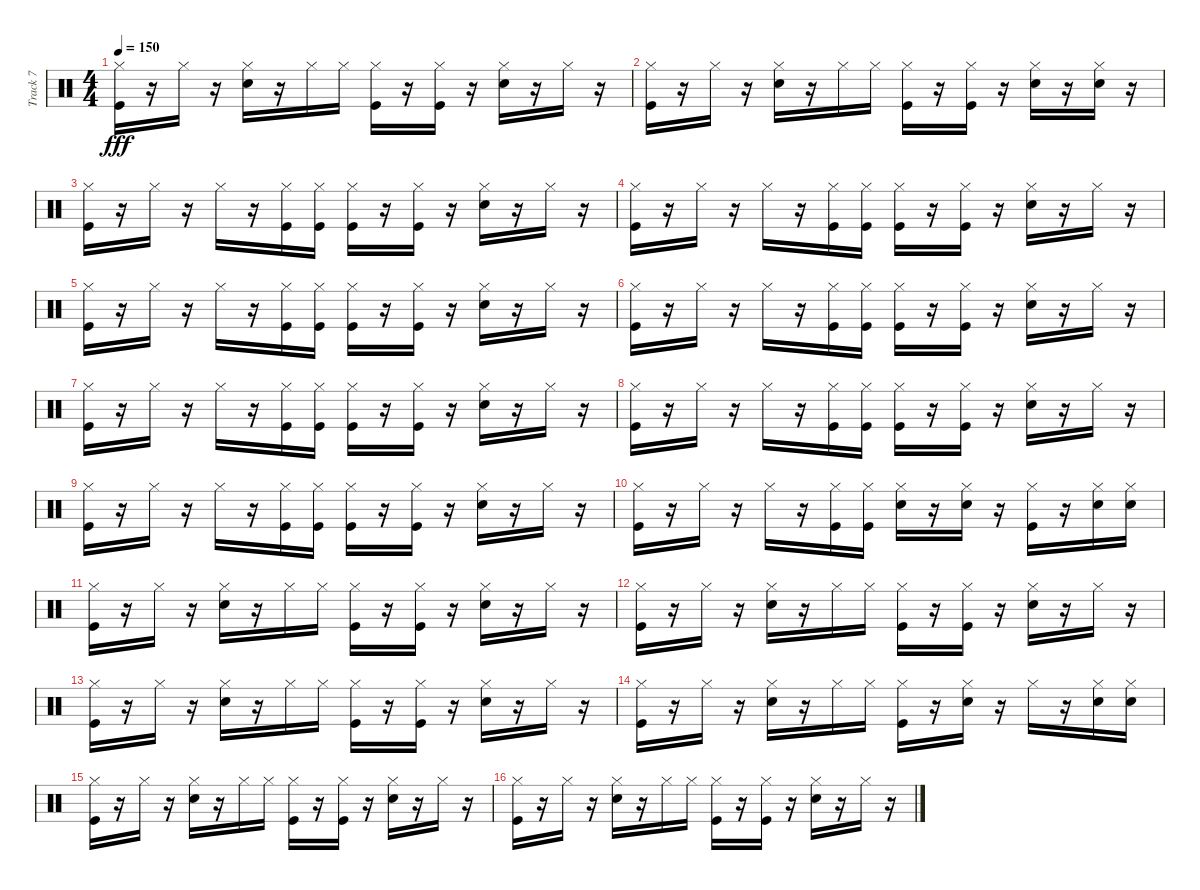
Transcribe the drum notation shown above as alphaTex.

\track ("Track 7" "Track 7") {instrument percussion}
\staff {score}
\articulation defaults
\ts (4 4)
\tempo 150
\clef neutral
\ks c
("Kick (hit)" "Hi-Hat (closed)").16{dy fff} r.16 "Hi-Hat (closed)".16 r.16 ("Snare (hit) 2" "Hi-Hat (closed)").16 r.16 "Hi-Hat (closed)".16 "Hi-Hat (closed)".16 ("Kick (hit)" "Hi-Hat (closed)").16 r.16 ("Kick (hit)" "Hi-Hat (closed)").16 r.16 ("Snare (hit) 2" "Hi-Hat (closed)").16 r.16 "Hi-Hat (closed)".16 r.16 |
("Kick (hit)" "Hi-Hat (closed)").16 r.16 "Hi-Hat (closed)".16 r.16 ("Snare (hit) 2" "Hi-Hat (closed)").16 r.16 "Hi-Hat (closed)".16 "Hi-Hat (closed)".16 ("Kick (hit)" "Hi-Hat (closed)").16 r.16 ("Kick (hit)" "Hi-Hat (closed)").16 r.16 ("Snare (hit) 2" "Hi-Hat (closed)").16 r.16 ("Snare (hit) 2" "Hi-Hat (closed)").16 r.16 |
("Kick (hit)" "Hi-Hat (closed)").16 r.16 "Hi-Hat (closed)".16 r.16 "Hi-Hat (closed)".16 r.16 ("Kick (hit)" "Hi-Hat (closed)").16 ("Kick (hit)" "Hi-Hat (closed)").16 ("Kick (hit)" "Hi-Hat (closed)").16 r.16 ("Kick (hit)" "Hi-Hat (closed)").16 r.16 ("Snare (hit) 2" "Hi-Hat (closed)").16 r.16 "Hi-Hat (closed)".16 r.16 |
("Kick (hit)" "Hi-Hat (closed)").16 r.16 "Hi-Hat (closed)".16 r.16 "Hi-Hat (closed)".16 r.16 ("Kick (hit)" "Hi-Hat (closed)").16 ("Kick (hit)" "Hi-Hat (closed)").16 ("Kick (hit)" "Hi-Hat (closed)").16 r.16 ("Kick (hit)" "Hi-Hat (closed)").16 r.16 ("Snare (hit) 2" "Hi-Hat (closed)").16 r.16 "Hi-Hat (closed)".16 r.16 |
("Kick (hit)" "Hi-Hat (closed)").16 r.16 "Hi-Hat (closed)".16 r.16 "Hi-Hat (closed)".16 r.16 ("Kick (hit)" "Hi-Hat (closed)").16 ("Kick (hit)" "Hi-Hat (closed)").16 ("Kick (hit)" "Hi-Hat (closed)").16 r.16 ("Kick (hit)" "Hi-Hat (closed)").16 r.16 ("Snare (hit) 2" "Hi-Hat (closed)").16 r.16 "Hi-Hat (closed)".16 r.16 |
("Kick (hit)" "Hi-Hat (closed)").16 r.16 "Hi-Hat (closed)".16 r.16 "Hi-Hat (closed)".16 r.16 ("Kick (hit)" "Hi-Hat (closed)").16 ("Kick (hit)" "Hi-Hat (closed)").16 ("Kick (hit)" "Hi-Hat (closed)").16 r.16 ("Kick (hit)" "Hi-Hat (closed)").16 r.16 ("Snare (hit) 2" "Hi-Hat (closed)").16 r.16 "Hi-Hat (closed)".16 r.16 |
("Kick (hit)" "Hi-Hat (closed)").16 r.16 "Hi-Hat (closed)".16 r.16 "Hi-Hat (closed)".16 r.16 ("Kick (hit)" "Hi-Hat (closed)").16 ("Kick (hit)" "Hi-Hat (closed)").16 ("Kick (hit)" "Hi-Hat (closed)").16 r.16 ("Kick (hit)" "Hi-Hat (closed)").16 r.16 ("Snare (hit) 2" "Hi-Hat (closed)").16 r.16 "Hi-Hat (closed)".16 r.16 |
("Kick (hit)" "Hi-Hat (closed)").16 r.16 "Hi-Hat (closed)".16 r.16 "Hi-Hat (closed)".16 r.16 ("Kick (hit)" "Hi-Hat (closed)").16 ("Kick (hit)" "Hi-Hat (closed)").16 ("Kick (hit)" "Hi-Hat (closed)").16 r.16 ("Kick (hit)" "Hi-Hat (closed)").16 r.16 ("Snare (hit) 2" "Hi-Hat (closed)").16 r.16 "Hi-Hat (closed)".16 r.16 |
("Kick (hit)" "Hi-Hat (closed)").16 r.16 "Hi-Hat (closed)".16 r.16 "Hi-Hat (closed)".16 r.16 ("Kick (hit)" "Hi-Hat (closed)").16 ("Kick (hit)" "Hi-Hat (closed)").16 ("Kick (hit)" "Hi-Hat (closed)").16 r.16 ("Kick (hit)" "Hi-Hat (closed)").16 r.16 ("Snare (hit) 2" "Hi-Hat (closed)").16 r.16 "Hi-Hat (closed)".16 r.16 |
("Kick (hit)" "Hi-Hat (closed)").16 r.16 "Hi-Hat (closed)".16 r.16 "Hi-Hat (closed)".16 r.16 ("Kick (hit)" "Hi-Hat (closed)").16 ("Kick (hit)" "Hi-Hat (closed)").16 ("Snare (hit) 2" "Hi-Hat (closed)").16 r.16 ("Snare (hit) 2" "Hi-Hat (closed)").16 r.16 ("Kick (hit)" "Hi-Hat (closed)").16 r.16 ("Snare (hit) 2" "Hi-Hat (closed)").16 ("Snare (hit) 2" "Hi-Hat (closed)").16 |
("Kick (hit)" "Hi-Hat (closed)").16 r.16 "Hi-Hat (closed)".16 r.16 ("Snare (hit) 2" "Hi-Hat (closed)").16 r.16 "Hi-Hat (closed)".16 "Hi-Hat (closed)".16 ("Kick (hit)" "Hi-Hat (closed)").16 r.16 ("Kick (hit)" "Hi-Hat (closed)").16 r.16 ("Snare (hit) 2" "Hi-Hat (closed)").16 r.16 "Hi-Hat (closed)".16 r.16 |
("Kick (hit)" "Hi-Hat (closed)").16 r.16 "Hi-Hat (closed)".16 r.16 ("Snare (hit) 2" "Hi-Hat (closed)").16 r.16 "Hi-Hat (closed)".16 "Hi-Hat (closed)".16 ("Kick (hit)" "Hi-Hat (closed)").16 r.16 ("Kick (hit)" "Hi-Hat (closed)").16 r.16 ("Snare (hit) 2" "Hi-Hat (closed)").16 r.16 "Hi-Hat (closed)".16 r.16 |
("Kick (hit)" "Hi-Hat (closed)").16 r.16 "Hi-Hat (closed)".16 r.16 ("Snare (hit) 2" "Hi-Hat (closed)").16 r.16 "Hi-Hat (closed)".16 "Hi-Hat (closed)".16 ("Kick (hit)" "Hi-Hat (closed)").16 r.16 ("Kick (hit)" "Hi-Hat (closed)").16 r.16 ("Snare (hit) 2" "Hi-Hat (closed)").16 r.16 "Hi-Hat (closed)".16 r.16 |
("Kick (hit)" "Hi-Hat (closed)").16 r.16 "Hi-Hat (closed)".16 r.16 ("Snare (hit) 2" "Hi-Hat (closed)").16 r.16 "Hi-Hat (closed)".16 "Hi-Hat (closed)".16 ("Kick (hit)" "Hi-Hat (closed)").16 r.16 ("Snare (hit) 2" "Hi-Hat (closed)").16 r.16 "Hi-Hat (closed)".16 r.16 ("Snare (hit) 2" "Hi-Hat (closed)").16 ("Snare (hit) 2" "Hi-Hat (closed)").16 |
("Kick (hit)" "Hi-Hat (closed)").16 r.16 "Hi-Hat (closed)".16 r.16 ("Snare (hit) 2" "Hi-Hat (closed)").16 r.16 "Hi-Hat (closed)".16 "Hi-Hat (closed)".16 ("Kick (hit)" "Hi-Hat (closed)").16 r.16 ("Kick (hit)" "Hi-Hat (closed)").16 r.16 ("Snare (hit) 2" "Hi-Hat (closed)").16 r.16 "Hi-Hat (closed)".16 r.16 |
("Kick (hit)" "Hi-Hat (closed)").16 r.16 "Hi-Hat (closed)".16 r.16 ("Snare (hit) 2" "Hi-Hat (closed)").16 r.16 "Hi-Hat (closed)".16 "Hi-Hat (closed)".16 ("Kick (hit)" "Hi-Hat (closed)").16 r.16 ("Kick (hit)" "Hi-Hat (closed)").16 r.16 ("Snare (hit) 2" "Hi-Hat (closed)").16 r.16 "Hi-Hat (closed)".16 r.16
